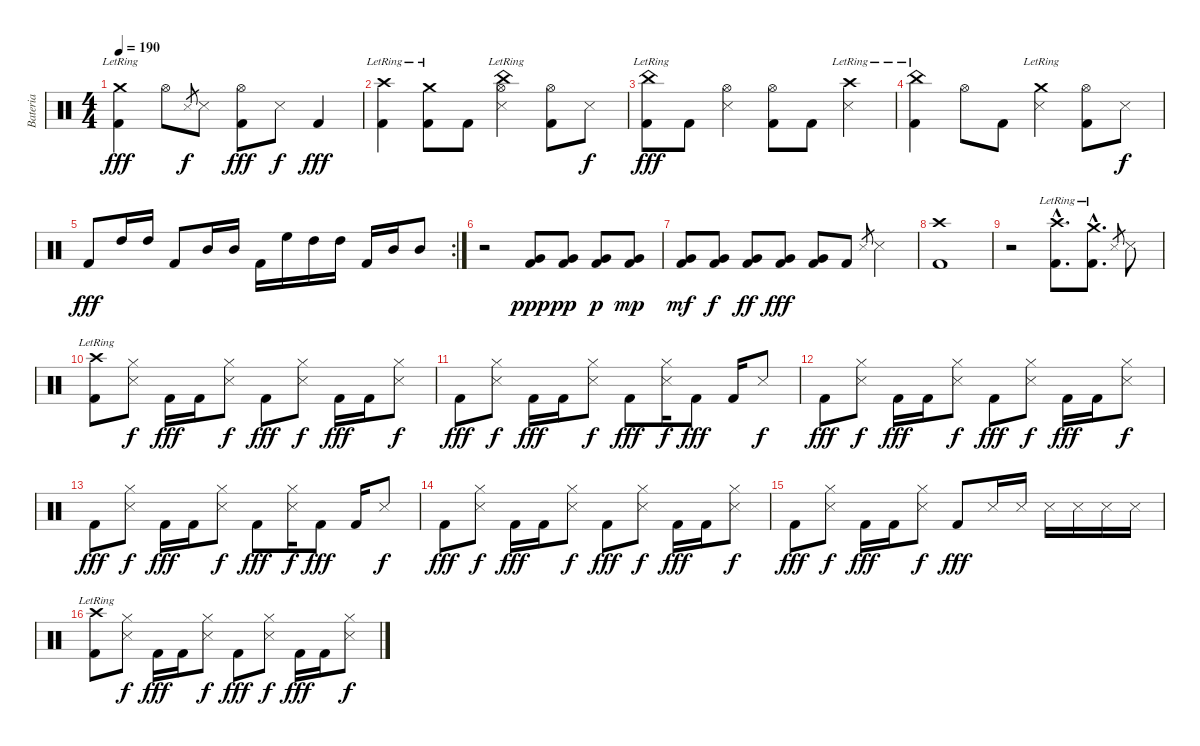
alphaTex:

\track ("Bateria" "Bateria") {instrument percussion}
\staff {score}
\articulation defaults
\ts (4 4)
\tempo 190
\clef neutral
\ks c
("Crash medium (hit)"{lr} "Kick (hit) 2").4{dy fff} "Hi-Hat (open)".8 "Snare (side stick) 3".8{gr dy f} "Snare (side stick) 3".8 ("Hi-Hat (open)" "Kick (hit) 2").8{dy fff} "Snare (side stick) 3".8{dy f} "Kick (hit) 2".4{dy fff} |
("Crash high (hit)"{lr} "Kick (hit) 2").4 ("Crash medium (hit)"{lr} "Kick (hit) 2").8 "Kick (hit) 2".8 ("Hi-Hat (open)" "Snare (side stick) 3" "China (hit)"{lr}).4 ("Hi-Hat (open)" "Kick (hit) 2").8 "Snare (side stick) 3".8{dy f} |
("China (hit)"{lr} "Kick (hit) 2").8{dy fff} "Kick (hit) 2".8 ("Hi-Hat (open)" "Snare (side stick) 3").4 ("Hi-Hat (open)" "Kick (hit) 2").8 "Kick (hit) 2".8 ("Crash high (hit)"{lr} "Snare (side stick) 3").4 |
("China (hit)"{lr} "Kick (hit) 2").4 "Hi-Hat (open)".8 "Kick (hit) 2".8 ("Crash medium (hit)"{lr} "Snare (side stick) 3").4 ("Hi-Hat (open)" "Kick (hit) 2").8 "Snare (side stick) 3".8{dy f} |
\rc 2 "Kick (hit) 2".8{dy fff} "High Tom (hit)".16 "High Tom (hit)".16 "Kick (hit) 2".8 "Mid Tom (hit)".16 "Mid Tom (hit)".16 "Kick (hit) 2".16 "High Floor Tom (hit)".16 "High Tom (hit)".16 "High Tom (hit)".16 "Kick (hit) 2".16 "Mid Tom (hit)".16 "Mid Tom (hit)".8
|
r.2 ("Very Low Tom (hit)" "Kick (hit) 2").8{dy ppp} ("Very Low Tom (hit)" "Kick (hit) 2").8{dy pp} ("Very Low Tom (hit)" "Kick (hit) 2").8{dy p} ("Very Low Tom (hit)" "Kick (hit) 2").8{dy mp} |
("Very Low Tom (hit)" "Kick (hit) 2").8{dy mf} ("Very Low Tom (hit)" "Kick (hit) 2").8{dy f} ("Very Low Tom (hit)" "Kick (hit) 2").8{dy ff} ("Very Low Tom (hit)" "Kick (hit) 2").8{dy fff} ("Very Low Tom (hit)" "Kick (hit) 2").8 "Kick (hit) 2".8 "Snare (side stick) 3".8{gr} "Snare (side stick) 3".4 |
("Crash high (hit)" "Kick (hit) 2").1 |
r.2 ("Crash high (hit)"{hac lr} "Kick (hit) 2"{hac}).8{d} ("Crash medium (hit)"{hac lr} "Kick (hit) 2"{hac}).8{d} "Snare (side stick) 3".8{gr} "Snare (side stick) 3".8 |
("Crash high (hit)"{lr} "Kick (hit) 2").8 ("Hi-Hat (closed)" "Snare (side stick) 3").8{dy f} "Kick (hit) 2".16{dy fff} "Kick (hit) 2".16 ("Hi-Hat (closed)" "Snare (side stick) 3").8{dy f} "Kick (hit) 2".8{dy fff} ("Hi-Hat (closed)" "Snare (side stick) 3").8{dy f} "Kick (hit) 2".16{dy fff} "Kick (hit) 2".16 ("Hi-Hat (closed)" "Snare (side stick) 3").8{dy f} |
"Kick (hit) 2".8{dy fff} ("Hi-Hat (closed)" "Snare (side stick) 3").8{dy f} "Kick (hit) 2".16{dy fff} "Kick (hit) 2".16 ("Hi-Hat (closed)" "Snare (side stick) 3").8{dy f} "Kick (hit) 2".8{dy fff} ("Hi-Hat (closed)" "Snare (side stick) 3").16{dy f} "Kick (hit) 2".8{dy fff} "Kick (hit) 2".16 "Snare (side stick) 3".8{dy f} |
"Kick (hit) 2".8{dy fff} ("Hi-Hat (closed)" "Snare (side stick) 3").8{dy f} "Kick (hit) 2".16{dy fff} "Kick (hit) 2".16 ("Hi-Hat (closed)" "Snare (side stick) 3").8{dy f} "Kick (hit) 2".8{dy fff} ("Hi-Hat (closed)" "Snare (side stick) 3").8{dy f} "Kick (hit) 2".16{dy fff} "Kick (hit) 2".16 ("Hi-Hat (closed)" "Snare (side stick) 3").8{dy f} |
"Kick (hit) 2".8{dy fff} ("Hi-Hat (closed)" "Snare (side stick) 3").8{dy f} "Kick (hit) 2".16{dy fff} "Kick (hit) 2".16 ("Hi-Hat (closed)" "Snare (side stick) 3").8{dy f} "Kick (hit) 2".8{dy fff} ("Hi-Hat (closed)" "Snare (side stick) 3").16{dy f} "Kick (hit) 2".8{dy fff} "Kick (hit) 2".16 "Snare (side stick) 3".8{dy f} |
"Kick (hit) 2".8{dy fff} ("Hi-Hat (closed)" "Snare (side stick) 3").8{dy f} "Kick (hit) 2".16{dy fff} "Kick (hit) 2".16 ("Hi-Hat (closed)" "Snare (side stick) 3").8{dy f} "Kick (hit) 2".8{dy fff} ("Hi-Hat (closed)" "Snare (side stick) 3").8{dy f} "Kick (hit) 2".16{dy fff} "Kick (hit) 2".16 ("Hi-Hat (closed)" "Snare (side stick) 3").8{dy f} |
"Kick (hit) 2".8{dy fff} ("Hi-Hat (closed)" "Snare (side stick) 3").8{dy f} "Kick (hit) 2".16{dy fff} "Kick (hit) 2".16 ("Hi-Hat (closed)" "Snare (side stick) 3").8{dy f} "Kick (hit) 2".8{dy fff} "Snare (side stick) 3".16 "Snare (side stick) 3".16 "Snare (side stick) 3".16 "Snare (side stick) 3".16 "Snare (side stick) 3".16 "Snare (side stick) 3".16 |
("Crash high (hit)"{lr} "Kick (hit) 2").8 ("Hi-Hat (closed)" "Snare (side stick) 3").8{dy f} "Kick (hit) 2".16{dy fff} "Kick (hit) 2".16 ("Hi-Hat (closed)" "Snare (side stick) 3").8{dy f} "Kick (hit) 2".8{dy fff} ("Hi-Hat (closed)" "Snare (side stick) 3").8{dy f} "Kick (hit) 2".16{dy fff} "Kick (hit) 2".16 ("Hi-Hat (closed)" "Snare (side stick) 3").8{dy f}
